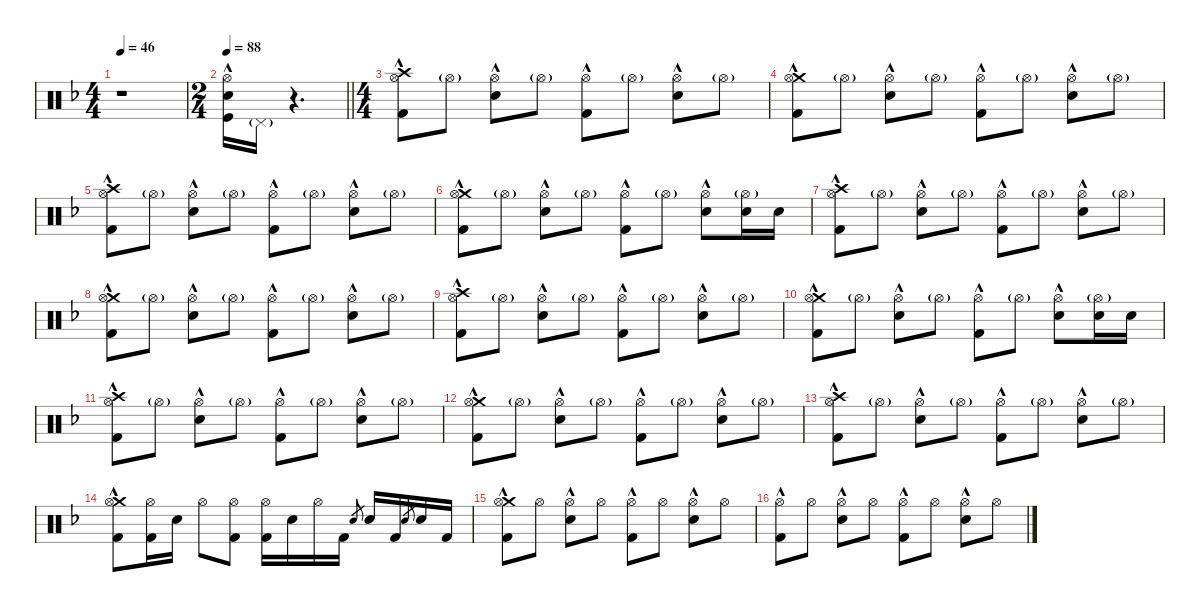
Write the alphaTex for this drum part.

\defaultSystemsLayout 4
\hideDynamics
\bracketExtendMode nobrackets
\singleTrackTrackNamePolicy hidden
\multiTrackTrackNamePolicy hidden
\otherSystemsTrackNameOrientation horizontal
\track ("Martin Lopez - Drums" "drm.") {defaultSystemsLayout 4 instrument percussion}
\staff {score}
\articulation defaults
\ts (4 4)
\beaming (8 2 2 2 2)
\tempo 46
\clef neutral
\ks dminor
r.1{dy mf beam Down} |
\ts (2 4)
\beaming (8 2 2 2 2)
\tempo 88
\barLineRight lightlight
("Hi-Hat (open)"{hac acc forcenatural} "Snare (hit) 2"{hac acc forcenatural} "Kick (hit)"{hac acc forcenatural}).16{beam Down} "Pedal Hi-Hat (hit)"{g acc forcenatural}.16{dy mp beam Down} r.4{d beam Down} |
\ts (4 4)
\beaming (8 2 2 2 2)
\tempo (89 hide)
("Crash high (hit)"{acc forcenatural} "Hi-Hat (open)"{acc forcenatural} "Kick (hit) 2"{hac acc forcenatural}).8{dy mf beam Down} "Hi-Hat (open)"{g acc forcenatural}.8{dy mp beam Down} ("Hi-Hat (open)"{acc forcenatural} "Snare (hit) 2"{hac acc forcenatural}).8{dy mf beam Down} "Hi-Hat (open)"{g acc forcenatural}.8{dy mp beam Down} ("Hi-Hat (open)"{acc forcenatural} "Kick (hit) 2"{hac acc forcenatural}).8{dy mf beam Down} "Hi-Hat (open)"{g acc forcenatural}.8{dy mp beam Down} ("Hi-Hat (open)"{acc forcenatural} "Snare (hit) 2"{hac acc forcenatural}).8{dy mf beam Down} "Hi-Hat (open)"{g acc forcenatural}.8{dy mp beam Down} |
\tempo (88 hide)
("Crash medium (hit)"{acc forcenatural} "Hi-Hat (open)"{acc forcenatural} "Kick (hit) 2"{hac acc forcenatural}).8{dy mf beam Down} "Hi-Hat (open)"{g acc forcenatural}.8{dy mp beam Down} ("Hi-Hat (open)"{acc forcenatural} "Snare (hit) 2"{hac acc forcenatural}).8{dy mf beam Down} "Hi-Hat (open)"{g acc forcenatural}.8{dy mp beam Down} ("Hi-Hat (open)"{acc forcenatural} "Kick (hit) 2"{hac acc forcenatural}).8{dy mf beam Down} "Hi-Hat (open)"{g acc forcenatural}.8{dy mp beam Down} ("Hi-Hat (open)"{acc forcenatural} "Snare (hit) 2"{hac acc forcenatural}).8{dy mf beam Down} "Hi-Hat (open)"{g acc forcenatural}.8{dy mp beam Down} |
\tempo (89 hide)
("Crash high (hit)"{acc forcenatural} "Hi-Hat (open)"{acc forcenatural} "Kick (hit) 2"{hac acc forcenatural}).8{dy mf beam Down} "Hi-Hat (open)"{g acc forcenatural}.8{dy mp beam Down} ("Hi-Hat (open)"{acc forcenatural} "Snare (hit) 2"{hac acc forcenatural}).8{dy mf beam Down} "Hi-Hat (open)"{g acc forcenatural}.8{dy mp beam Down} ("Hi-Hat (open)"{acc forcenatural} "Kick (hit) 2"{hac acc forcenatural}).8{dy mf beam Down} "Hi-Hat (open)"{g acc forcenatural}.8{dy mp beam Down} ("Hi-Hat (open)"{acc forcenatural} "Snare (hit) 2"{hac acc forcenatural}).8{dy mf beam Down} "Hi-Hat (open)"{g acc forcenatural}.8{dy mp beam Down} |
\tempo (88 hide)
("Crash medium (hit)"{acc forcenatural} "Hi-Hat (open)"{acc forcenatural} "Kick (hit) 2"{hac acc forcenatural}).8{dy mf beam Down} "Hi-Hat (open)"{g acc forcenatural}.8{dy mp beam Down} ("Hi-Hat (open)"{acc forcenatural} "Snare (hit) 2"{hac acc forcenatural}).8{dy mf beam Down} "Hi-Hat (open)"{g acc forcenatural}.8{dy mp beam Down} ("Hi-Hat (open)"{acc forcenatural} "Kick (hit) 2"{hac acc forcenatural}).8{dy mf beam Down} "Hi-Hat (open)"{g acc forcenatural}.8{dy mp beam Down} ("Hi-Hat (open)"{acc forcenatural} "Snare (hit) 2"{hac acc forcenatural}).8{dy mf beam Down} ("Hi-Hat (open)"{g acc forcenatural} "Snare (hit) 2"{acc forcenatural}).16{beam Down} "Snare (hit) 2"{acc forcenatural}.16{beam Down} |
\tempo (89 hide)
("Crash high (hit)"{acc forcenatural} "Hi-Hat (open)"{acc forcenatural} "Kick (hit) 2"{hac acc forcenatural}).8{beam Down} "Hi-Hat (open)"{g acc forcenatural}.8{dy mp beam Down} ("Hi-Hat (open)"{acc forcenatural} "Snare (hit) 2"{hac acc forcenatural}).8{dy mf beam Down} "Hi-Hat (open)"{g acc forcenatural}.8{dy mp beam Down} ("Hi-Hat (open)"{acc forcenatural} "Kick (hit) 2"{hac acc forcenatural}).8{dy mf beam Down} "Hi-Hat (open)"{g acc forcenatural}.8{dy mp beam Down} ("Hi-Hat (open)"{acc forcenatural} "Snare (hit) 2"{hac acc forcenatural}).8{dy mf beam Down} "Hi-Hat (open)"{g acc forcenatural}.8{dy mp beam Down} |
\tempo (88 hide)
\tempo (89 0.992064 hide)
("Crash medium (hit)"{acc forcenatural} "Hi-Hat (open)"{acc forcenatural} "Kick (hit) 2"{hac acc forcenatural}).8{dy mf beam Down} "Hi-Hat (open)"{g acc forcenatural}.8{dy mp beam Down} ("Hi-Hat (open)"{acc forcenatural} "Snare (hit) 2"{hac acc forcenatural}).8{dy mf beam Down} "Hi-Hat (open)"{g acc forcenatural}.8{dy mp beam Down} ("Hi-Hat (open)"{acc forcenatural} "Kick (hit) 2"{hac acc forcenatural}).8{dy mf beam Down} "Hi-Hat (open)"{g acc forcenatural}.8{dy mp beam Down} ("Hi-Hat (open)"{acc forcenatural} "Snare (hit) 2"{hac acc forcenatural}).8{dy mf beam Down} "Hi-Hat (open)"{g acc forcenatural}.8{dy mp beam Down} |
("Crash high (hit)"{acc forcenatural} "Hi-Hat (open)"{acc forcenatural} "Kick (hit) 2"{hac acc forcenatural}).8{dy mf beam Down} "Hi-Hat (open)"{g acc forcenatural}.8{dy mp beam Down} ("Hi-Hat (open)"{acc forcenatural} "Snare (hit) 2"{hac acc forcenatural}).8{dy mf beam Down} "Hi-Hat (open)"{g acc forcenatural}.8{dy mp beam Down} ("Hi-Hat (open)"{acc forcenatural} "Kick (hit) 2"{hac acc forcenatural}).8{dy mf beam Down} "Hi-Hat (open)"{g acc forcenatural}.8{dy mp beam Down} ("Hi-Hat (open)"{acc forcenatural} "Snare (hit) 2"{hac acc forcenatural}).8{dy mf beam Down} "Hi-Hat (open)"{g acc forcenatural}.8{dy mp beam Down} |
\tempo (88 hide)
\tempo (89 0.984127 hide)
("Crash medium (hit)"{acc forcenatural} "Hi-Hat (open)"{acc forcenatural} "Kick (hit) 2"{hac acc forcenatural}).8{dy mf beam Down} "Hi-Hat (open)"{g acc forcenatural}.8{dy mp beam Down} ("Hi-Hat (open)"{acc forcenatural} "Snare (hit) 2"{hac acc forcenatural}).8{dy mf beam Down} "Hi-Hat (open)"{g acc forcenatural}.8{dy mp beam Down} ("Hi-Hat (open)"{acc forcenatural} "Kick (hit) 2"{hac acc forcenatural}).8{dy mf beam Down} "Hi-Hat (open)"{g acc forcenatural}.8{dy mp beam Down} ("Hi-Hat (open)"{acc forcenatural} "Snare (hit) 2"{hac acc forcenatural}).8{dy mf beam Down} ("Hi-Hat (open)"{g acc forcenatural} "Snare (hit) 2"{acc forcenatural}).16{beam Down} "Snare (hit) 2"{acc forcenatural}.16{beam Down} |
("Crash high (hit)"{acc forcenatural} "Hi-Hat (open)"{acc forcenatural} "Kick (hit) 2"{hac acc forcenatural}).8{beam Down} "Hi-Hat (open)"{g acc forcenatural}.8{dy mp beam Down} ("Hi-Hat (open)"{acc forcenatural} "Snare (hit) 2"{hac acc forcenatural}).8{dy mf beam Down} "Hi-Hat (open)"{g acc forcenatural}.8{dy mp beam Down} ("Hi-Hat (open)"{acc forcenatural} "Kick (hit) 2"{hac acc forcenatural}).8{dy mf beam Down} "Hi-Hat (open)"{g acc forcenatural}.8{dy mp beam Down} ("Hi-Hat (open)"{acc forcenatural} "Snare (hit) 2"{hac acc forcenatural}).8{dy mf beam Down} "Hi-Hat (open)"{g acc forcenatural}.8{dy mp beam Down} |
\tempo (88 hide)
("Crash medium (hit)"{acc forcenatural} "Hi-Hat (open)"{acc forcenatural} "Kick (hit) 2"{hac acc forcenatural}).8{dy mf beam Down} "Hi-Hat (open)"{g acc forcenatural}.8{dy mp beam Down} ("Hi-Hat (open)"{acc forcenatural} "Snare (hit) 2"{hac acc forcenatural}).8{dy mf beam Down} "Hi-Hat (open)"{g acc forcenatural}.8{dy mp beam Down} ("Hi-Hat (open)"{acc forcenatural} "Kick (hit) 2"{hac acc forcenatural}).8{dy mf beam Down} "Hi-Hat (open)"{g acc forcenatural}.8{dy mp beam Down} ("Hi-Hat (open)"{acc forcenatural} "Snare (hit) 2"{hac acc forcenatural}).8{dy mf beam Down} "Hi-Hat (open)"{g acc forcenatural}.8{dy mp beam Down} |
\tempo (89 hide)
("Crash high (hit)"{acc forcenatural} "Hi-Hat (open)"{acc forcenatural} "Kick (hit) 2"{hac acc forcenatural}).8{dy mf beam Down} "Hi-Hat (open)"{g acc forcenatural}.8{dy mp beam Down} ("Hi-Hat (open)"{acc forcenatural} "Snare (hit) 2"{hac acc forcenatural}).8{dy mf beam Down} "Hi-Hat (open)"{g acc forcenatural}.8{dy mp beam Down} ("Hi-Hat (open)"{acc forcenatural} "Kick (hit) 2"{hac acc forcenatural}).8{dy mf beam Down} "Hi-Hat (open)"{g acc forcenatural}.8{dy mp beam Down} ("Hi-Hat (open)"{acc forcenatural} "Snare (hit) 2"{hac acc forcenatural}).8{dy mf beam Down} "Hi-Hat (open)"{g acc forcenatural}.8{dy mp beam Down} |
\tempo (88 hide)
("Crash medium (hit)"{acc forcenatural} "Hi-Hat (open)"{acc forcenatural} "Kick (hit) 2"{hac acc forcenatural}).8{dy mf beam Down} ("Hi-Hat (open)"{acc forcenatural} "Kick (hit) 2"{acc forcenatural}).16{beam Down} "Snare (hit) 2"{acc forcenatural}.16{beam Down} "Hi-Hat (open)"{acc forcenatural}.8{beam Down} ("Hi-Hat (open)"{acc forcenatural} "Kick (hit) 2"{acc forcenatural}).8{beam Down} ("Hi-Hat (open)"{acc forcenatural} "Kick (hit) 2"{acc forcenatural}).16{beam Down} "Snare (hit) 2"{acc forcenatural}.16{beam Down} "Hi-Hat (open)"{acc forcenatural}.16{beam Down} "Kick (hit) 2"{acc forcenatural}.16{beam Down} "Electric Snare (hit)"{acc forcenatural}.8{gr dy p beam Up} "Snare (hit) 2"{acc forcenatural}.16{dy mf beam Up} "Kick (hit) 2"{acc forcenatural}.16{beam Up} "Electric Snare (hit)"{acc forcenatural}.8{gr dy p beam Up} "Snare (hit) 2"{acc forcenatural}.16{dy mf beam Up} "Kick (hit) 2"{acc forcenatural}.16{beam Up} |
\tempo (89 hide)
("Crash medium (hit)"{acc forcenatural} "Hi-Hat (open)"{acc forcenatural} "Kick (hit) 2"{hac acc forcenatural}).8{beam Down} "Hi-Hat (open)"{acc forcenatural}.8{beam Down} ("Hi-Hat (open)"{acc forcenatural} "Snare (hit) 2"{hac acc forcenatural}).8{beam Down} "Hi-Hat (open)"{acc forcenatural}.8{beam Down} ("Hi-Hat (open)"{acc forcenatural} "Kick (hit) 2"{hac acc forcenatural}).8{beam Down} "Hi-Hat (open)"{acc forcenatural}.8{beam Down} ("Hi-Hat (open)"{acc forcenatural} "Snare (hit) 2"{hac acc forcenatural}).8{beam Down} "Hi-Hat (open)"{acc forcenatural}.8{beam Down} |
\tempo (88 hide)
("Hi-Hat (open)"{acc forcenatural} "Kick (hit) 2"{hac acc forcenatural}).8{beam Down} "Hi-Hat (open)"{acc forcenatural}.8{beam Down} ("Hi-Hat (open)"{acc forcenatural} "Snare (hit) 2"{hac acc forcenatural}).8{beam Down} "Hi-Hat (open)"{acc forcenatural}.8{beam Down} ("Hi-Hat (open)"{acc forcenatural} "Kick (hit) 2"{hac acc forcenatural}).8{beam Down} "Hi-Hat (open)"{acc forcenatural}.8{beam Down} ("Hi-Hat (open)"{acc forcenatural} "Snare (hit) 2"{hac acc forcenatural}).8{beam Down} "Hi-Hat (open)"{acc forcenatural}.8{beam Down}
